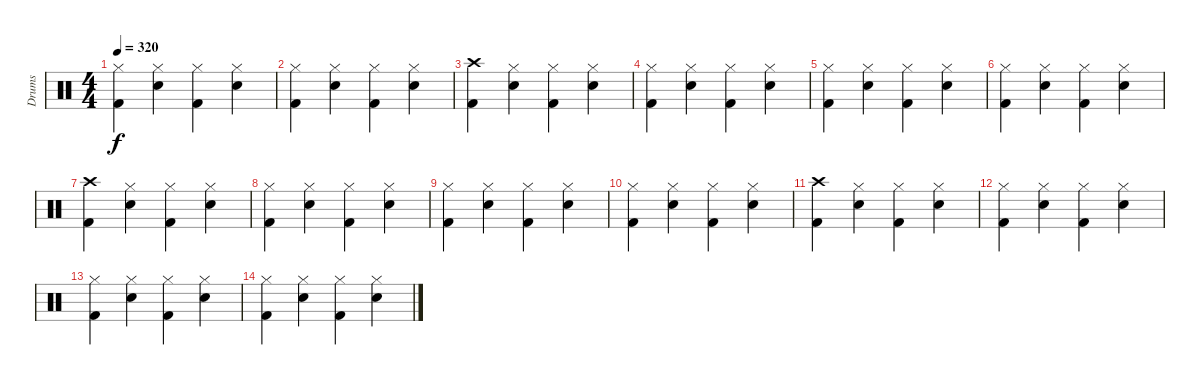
\track ("Drums" "Drums") {instrument percussion}
\staff {score}
\articulation defaults
\ts (4 4)
\tempo 320
\clef neutral
\ks c
("Hi-Hat (closed)" "Kick (hit) 2").4{dy f} ("Hi-Hat (closed)" "Snare (hit) 2").4 ("Hi-Hat (closed)" "Kick (hit) 2").4 ("Hi-Hat (closed)" "Snare (hit) 2").4 |
("Hi-Hat (closed)" "Kick (hit) 2").4 ("Hi-Hat (closed)" "Snare (hit) 2").4 ("Hi-Hat (closed)" "Kick (hit) 2").4 ("Hi-Hat (closed)" "Snare (hit) 2").4 |
("Crash high (hit)" "Kick (hit) 2").4 ("Hi-Hat (closed)" "Snare (hit) 2").4 ("Hi-Hat (closed)" "Kick (hit) 2").4 ("Hi-Hat (closed)" "Snare (hit) 2").4 |
("Hi-Hat (closed)" "Kick (hit) 2").4 ("Hi-Hat (closed)" "Snare (hit) 2").4 ("Hi-Hat (closed)" "Kick (hit) 2").4 ("Hi-Hat (closed)" "Snare (hit) 2").4 |
("Hi-Hat (closed)" "Kick (hit) 2").4 ("Hi-Hat (closed)" "Snare (hit) 2").4 ("Hi-Hat (closed)" "Kick (hit) 2").4 ("Hi-Hat (closed)" "Snare (hit) 2").4 |
("Hi-Hat (closed)" "Kick (hit) 2").4 ("Hi-Hat (closed)" "Snare (hit) 2").4 ("Hi-Hat (closed)" "Kick (hit) 2").4 ("Hi-Hat (closed)" "Snare (hit) 2").4 |
("Crash high (hit)" "Kick (hit) 2").4 ("Hi-Hat (closed)" "Snare (hit) 2").4 ("Hi-Hat (closed)" "Kick (hit) 2").4 ("Hi-Hat (closed)" "Snare (hit) 2").4 |
("Hi-Hat (closed)" "Kick (hit) 2").4 ("Hi-Hat (closed)" "Snare (hit) 2").4 ("Hi-Hat (closed)" "Kick (hit) 2").4 ("Hi-Hat (closed)" "Snare (hit) 2").4 |
("Hi-Hat (closed)" "Kick (hit) 2").4 ("Hi-Hat (closed)" "Snare (hit) 2").4 ("Hi-Hat (closed)" "Kick (hit) 2").4 ("Hi-Hat (closed)" "Snare (hit) 2").4 |
("Hi-Hat (closed)" "Kick (hit) 2").4 ("Hi-Hat (closed)" "Snare (hit) 2").4 ("Hi-Hat (closed)" "Kick (hit) 2").4 ("Hi-Hat (closed)" "Snare (hit) 2").4 |
("Crash high (hit)" "Kick (hit) 2").4 ("Hi-Hat (closed)" "Snare (hit) 2").4 ("Hi-Hat (closed)" "Kick (hit) 2").4 ("Hi-Hat (closed)" "Snare (hit) 2").4 |
("Hi-Hat (closed)" "Kick (hit) 2").4 ("Hi-Hat (closed)" "Snare (hit) 2").4 ("Hi-Hat (closed)" "Kick (hit) 2").4 ("Hi-Hat (closed)" "Snare (hit) 2").4 |
("Hi-Hat (closed)" "Kick (hit) 2").4 ("Hi-Hat (closed)" "Snare (hit) 2").4 ("Hi-Hat (closed)" "Kick (hit) 2").4 ("Hi-Hat (closed)" "Snare (hit) 2").4 |
("Hi-Hat (closed)" "Kick (hit) 2").4 ("Hi-Hat (closed)" "Snare (hit) 2").4 ("Hi-Hat (closed)" "Kick (hit) 2").4 ("Hi-Hat (closed)" "Snare (hit) 2").4
